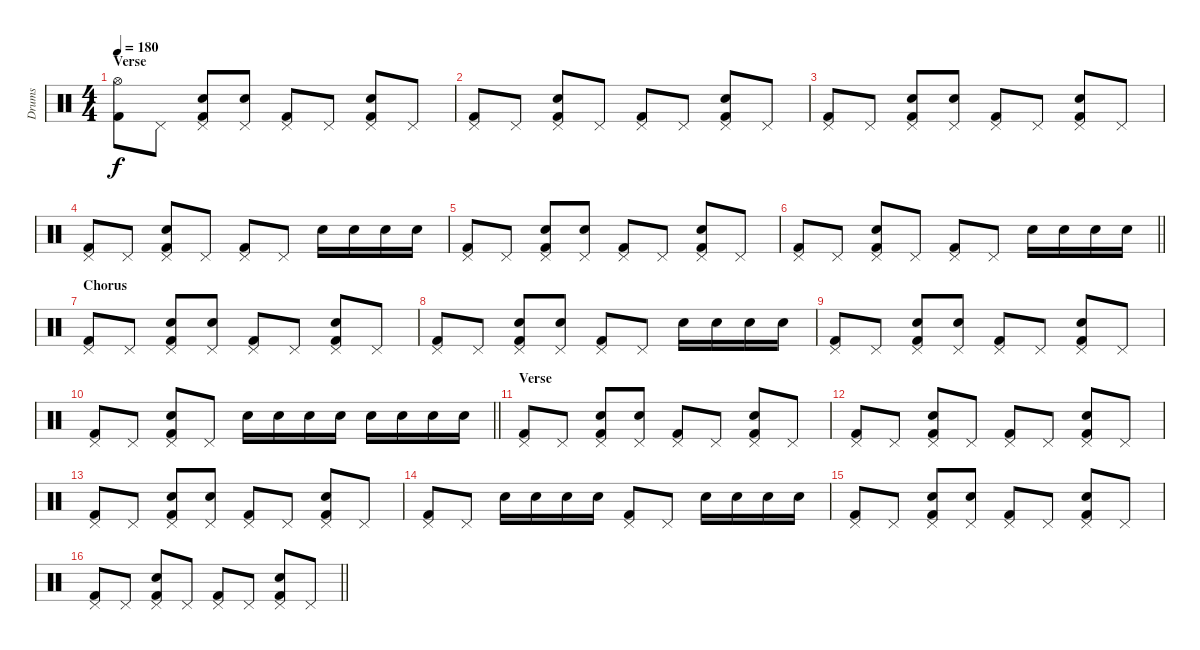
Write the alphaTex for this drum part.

\track ("Drums" "Drums") {instrument percussion}
\staff {score}
\articulation defaults
\ts (4 4)
\section ("" "Verse")
\tempo 180
\clef neutral
\ks c
("Hi-Hat (open)" "Kick (hit) 2").8{dy f} "Pedal Hi-Hat (hit)".8 ("Pedal Hi-Hat (hit)" "Kick (hit) 2" "Electric Snare (hit)").8 ("Pedal Hi-Hat (hit)" "Electric Snare (hit)").8 ("Pedal Hi-Hat (hit)" "Kick (hit) 2").8 "Pedal Hi-Hat (hit)".8 ("Pedal Hi-Hat (hit)" "Kick (hit) 2" "Electric Snare (hit)").8 "Pedal Hi-Hat (hit)".8 |
("Pedal Hi-Hat (hit)" "Kick (hit) 2").8 "Pedal Hi-Hat (hit)".8 ("Pedal Hi-Hat (hit)" "Kick (hit) 2" "Electric Snare (hit)").8 "Pedal Hi-Hat (hit)".8 ("Pedal Hi-Hat (hit)" "Kick (hit) 2").8 "Pedal Hi-Hat (hit)".8 ("Pedal Hi-Hat (hit)" "Kick (hit) 2" "Electric Snare (hit)").8 "Pedal Hi-Hat (hit)".8 |
("Pedal Hi-Hat (hit)" "Kick (hit) 2").8 "Pedal Hi-Hat (hit)".8 ("Pedal Hi-Hat (hit)" "Kick (hit) 2" "Electric Snare (hit)").8 ("Pedal Hi-Hat (hit)" "Electric Snare (hit)").8 ("Pedal Hi-Hat (hit)" "Kick (hit) 2").8 "Pedal Hi-Hat (hit)".8 ("Pedal Hi-Hat (hit)" "Kick (hit) 2" "Electric Snare (hit)").8 "Pedal Hi-Hat (hit)".8 |
("Pedal Hi-Hat (hit)" "Kick (hit) 2").8 "Pedal Hi-Hat (hit)".8 ("Pedal Hi-Hat (hit)" "Kick (hit) 2" "Electric Snare (hit)").8 "Pedal Hi-Hat (hit)".8 ("Pedal Hi-Hat (hit)" "Kick (hit) 2").8 "Pedal Hi-Hat (hit)".8 "Electric Snare (hit)".16 "Electric Snare (hit)".16 "Electric Snare (hit)".16 "Electric Snare (hit)".16 |
("Pedal Hi-Hat (hit)" "Kick (hit) 2").8 "Pedal Hi-Hat (hit)".8 ("Pedal Hi-Hat (hit)" "Kick (hit) 2" "Electric Snare (hit)").8 ("Pedal Hi-Hat (hit)" "Electric Snare (hit)").8 ("Pedal Hi-Hat (hit)" "Kick (hit) 2").8 "Pedal Hi-Hat (hit)".8 ("Pedal Hi-Hat (hit)" "Kick (hit) 2" "Electric Snare (hit)").8 "Pedal Hi-Hat (hit)".8 |
\barLineRight lightlight
("Pedal Hi-Hat (hit)" "Kick (hit) 2").8 "Pedal Hi-Hat (hit)".8 ("Pedal Hi-Hat (hit)" "Kick (hit) 2" "Electric Snare (hit)").8 "Pedal Hi-Hat (hit)".8 ("Pedal Hi-Hat (hit)" "Kick (hit) 2").8 "Pedal Hi-Hat (hit)".8 "Electric Snare (hit)".16 "Electric Snare (hit)".16 "Electric Snare (hit)".16 "Electric Snare (hit)".16 |
\section ("" "Chorus")
("Pedal Hi-Hat (hit)" "Kick (hit) 2").8 "Pedal Hi-Hat (hit)".8 ("Pedal Hi-Hat (hit)" "Kick (hit) 2" "Electric Snare (hit)").8 ("Pedal Hi-Hat (hit)" "Electric Snare (hit)").8 ("Pedal Hi-Hat (hit)" "Kick (hit) 2").8 "Pedal Hi-Hat (hit)".8 ("Pedal Hi-Hat (hit)" "Kick (hit) 2" "Electric Snare (hit)").8 "Pedal Hi-Hat (hit)".8 |
("Pedal Hi-Hat (hit)" "Kick (hit) 2").8 "Pedal Hi-Hat (hit)".8 ("Pedal Hi-Hat (hit)" "Kick (hit) 2" "Electric Snare (hit)").8 ("Pedal Hi-Hat (hit)" "Electric Snare (hit)").8 ("Pedal Hi-Hat (hit)" "Kick (hit) 2").8 "Pedal Hi-Hat (hit)".8 "Electric Snare (hit)".16 "Electric Snare (hit)".16 "Electric Snare (hit)".16 "Electric Snare (hit)".16 |
("Pedal Hi-Hat (hit)" "Kick (hit) 2").8 "Pedal Hi-Hat (hit)".8 ("Pedal Hi-Hat (hit)" "Kick (hit) 2" "Electric Snare (hit)").8 ("Pedal Hi-Hat (hit)" "Electric Snare (hit)").8 ("Pedal Hi-Hat (hit)" "Kick (hit) 2").8 "Pedal Hi-Hat (hit)".8 ("Pedal Hi-Hat (hit)" "Kick (hit) 2" "Electric Snare (hit)").8 "Pedal Hi-Hat (hit)".8 |
\barLineRight lightlight
("Pedal Hi-Hat (hit)" "Kick (hit) 2").8 "Pedal Hi-Hat (hit)".8 ("Pedal Hi-Hat (hit)" "Kick (hit) 2" "Electric Snare (hit)").8 "Pedal Hi-Hat (hit)".8 "Electric Snare (hit)".16 "Electric Snare (hit)".16 "Electric Snare (hit)".16 "Electric Snare (hit)".16 "Electric Snare (hit)".16 "Electric Snare (hit)".16 "Electric Snare (hit)".16 "Electric Snare (hit)".16 |
\section ("" "Verse")
("Pedal Hi-Hat (hit)" "Kick (hit) 2").8 "Pedal Hi-Hat (hit)".8 ("Pedal Hi-Hat (hit)" "Kick (hit) 2" "Electric Snare (hit)").8 ("Pedal Hi-Hat (hit)" "Electric Snare (hit)").8 ("Pedal Hi-Hat (hit)" "Kick (hit) 2").8 "Pedal Hi-Hat (hit)".8 ("Pedal Hi-Hat (hit)" "Kick (hit) 2" "Electric Snare (hit)").8 "Pedal Hi-Hat (hit)".8 |
("Pedal Hi-Hat (hit)" "Kick (hit) 2").8 "Pedal Hi-Hat (hit)".8 ("Pedal Hi-Hat (hit)" "Kick (hit) 2" "Electric Snare (hit)").8 "Pedal Hi-Hat (hit)".8 ("Pedal Hi-Hat (hit)" "Kick (hit) 2").8 "Pedal Hi-Hat (hit)".8 ("Pedal Hi-Hat (hit)" "Kick (hit) 2" "Electric Snare (hit)").8 "Pedal Hi-Hat (hit)".8 |
("Pedal Hi-Hat (hit)" "Kick (hit) 2").8 "Pedal Hi-Hat (hit)".8 ("Pedal Hi-Hat (hit)" "Kick (hit) 2" "Electric Snare (hit)").8 ("Pedal Hi-Hat (hit)" "Electric Snare (hit)").8 ("Pedal Hi-Hat (hit)" "Kick (hit) 2").8 "Pedal Hi-Hat (hit)".8 ("Pedal Hi-Hat (hit)" "Kick (hit) 2" "Electric Snare (hit)").8 "Pedal Hi-Hat (hit)".8 |
("Pedal Hi-Hat (hit)" "Kick (hit) 2").8 "Pedal Hi-Hat (hit)".8 "Electric Snare (hit)".16 "Electric Snare (hit)".16 "Electric Snare (hit)".16 "Electric Snare (hit)".16 ("Pedal Hi-Hat (hit)" "Kick (hit) 2").8 "Pedal Hi-Hat (hit)".8 "Electric Snare (hit)".16 "Electric Snare (hit)".16 "Electric Snare (hit)".16 "Electric Snare (hit)".16 |
("Pedal Hi-Hat (hit)" "Kick (hit) 2").8 "Pedal Hi-Hat (hit)".8 ("Pedal Hi-Hat (hit)" "Kick (hit) 2" "Electric Snare (hit)").8 ("Pedal Hi-Hat (hit)" "Electric Snare (hit)").8 ("Pedal Hi-Hat (hit)" "Kick (hit) 2").8 "Pedal Hi-Hat (hit)".8 ("Pedal Hi-Hat (hit)" "Kick (hit) 2" "Electric Snare (hit)").8 "Pedal Hi-Hat (hit)".8 |
\barLineRight lightlight
("Pedal Hi-Hat (hit)" "Kick (hit) 2").8 "Pedal Hi-Hat (hit)".8 ("Pedal Hi-Hat (hit)" "Kick (hit) 2" "Electric Snare (hit)").8 "Pedal Hi-Hat (hit)".8 ("Pedal Hi-Hat (hit)" "Kick (hit) 2").8 "Pedal Hi-Hat (hit)".8 ("Pedal Hi-Hat (hit)" "Kick (hit) 2" "Electric Snare (hit)").8 "Pedal Hi-Hat (hit)".8
